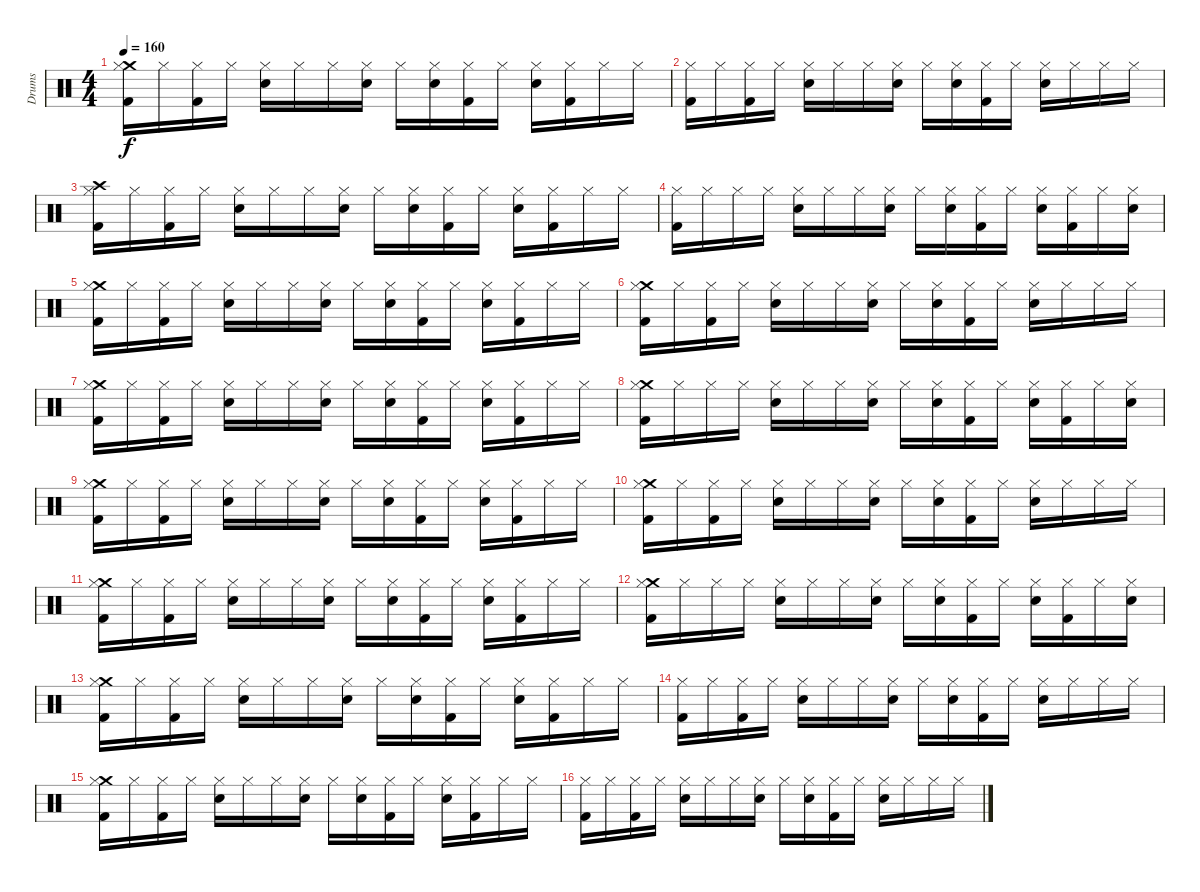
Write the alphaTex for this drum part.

\track ("Drums" "Drums") {instrument percussion}
\staff {score}
\articulation defaults
\ts (4 4)
\tempo 160
\clef neutral
\ks c
("Crash medium (hit)" "Kick (hit) 2" "Hi-Hat (closed)").16{dy f} "Hi-Hat (closed)".16 ("Kick (hit) 2" "Hi-Hat (closed)").16 "Hi-Hat (closed)".16 ("Hi-Hat (closed)" "Electric Snare (hit)").16 "Hi-Hat (closed)".16 "Hi-Hat (closed)".16 ("Electric Snare (hit)" "Hi-Hat (closed)").16 "Hi-Hat (closed)".16 ("Electric Snare (hit)" "Hi-Hat (closed)").16 ("Kick (hit) 2" "Hi-Hat (closed)").16 "Hi-Hat (closed)".16 ("Electric Snare (hit)" "Hi-Hat (closed)").16 ("Kick (hit) 2" "Hi-Hat (closed)").16 "Hi-Hat (closed)".16 "Hi-Hat (closed)".16 |
("Kick (hit) 2" "Hi-Hat (closed)").16 "Hi-Hat (closed)".16 ("Kick (hit) 2" "Hi-Hat (closed)").16 "Hi-Hat (closed)".16 ("Hi-Hat (closed)" "Electric Snare (hit)").16 "Hi-Hat (closed)".16 "Hi-Hat (closed)".16 ("Electric Snare (hit)" "Hi-Hat (closed)").16 "Hi-Hat (closed)".16 ("Electric Snare (hit)" "Hi-Hat (closed)").16 ("Kick (hit) 2" "Hi-Hat (closed)").16 "Hi-Hat (closed)".16 ("Electric Snare (hit)" "Hi-Hat (closed)").16 "Hi-Hat (closed)".16 "Hi-Hat (closed)".16 "Hi-Hat (closed)".16 |
("Crash high (hit)" "Kick (hit) 2" "Hi-Hat (closed)").16 "Hi-Hat (closed)".16 ("Kick (hit) 2" "Hi-Hat (closed)").16 "Hi-Hat (closed)".16 ("Hi-Hat (closed)" "Electric Snare (hit)").16 "Hi-Hat (closed)".16 "Hi-Hat (closed)".16 ("Electric Snare (hit)" "Hi-Hat (closed)").16 "Hi-Hat (closed)".16 ("Electric Snare (hit)" "Hi-Hat (closed)").16 ("Kick (hit) 2" "Hi-Hat (closed)").16 "Hi-Hat (closed)".16 ("Electric Snare (hit)" "Hi-Hat (closed)").16 ("Kick (hit) 2" "Hi-Hat (closed)").16 "Hi-Hat (closed)".16 "Hi-Hat (closed)".16 |
("Kick (hit) 2" "Hi-Hat (closed)").16 "Hi-Hat (closed)".16 "Hi-Hat (closed)".16 "Hi-Hat (closed)".16 ("Hi-Hat (closed)" "Electric Snare (hit)").16 "Hi-Hat (closed)".16 "Hi-Hat (closed)".16 ("Electric Snare (hit)" "Hi-Hat (closed)").16 "Hi-Hat (closed)".16 ("Electric Snare (hit)" "Hi-Hat (closed)").16 ("Kick (hit) 2" "Hi-Hat (closed)").16 "Hi-Hat (closed)".16 ("Electric Snare (hit)" "Hi-Hat (closed)").16 ("Kick (hit) 2" "Hi-Hat (closed)").16 "Hi-Hat (closed)".16 ("Electric Snare (hit)" "Hi-Hat (closed)").16 |
("Crash medium (hit)" "Kick (hit) 2" "Hi-Hat (closed)").16 "Hi-Hat (closed)".16 ("Kick (hit) 2" "Hi-Hat (closed)").16 "Hi-Hat (closed)".16 ("Hi-Hat (closed)" "Electric Snare (hit)").16 "Hi-Hat (closed)".16 "Hi-Hat (closed)".16 ("Electric Snare (hit)" "Hi-Hat (closed)").16 "Hi-Hat (closed)".16 ("Electric Snare (hit)" "Hi-Hat (closed)").16 ("Kick (hit) 2" "Hi-Hat (closed)").16 "Hi-Hat (closed)".16 ("Electric Snare (hit)" "Hi-Hat (closed)").16 ("Kick (hit) 2" "Hi-Hat (closed)").16 "Hi-Hat (closed)".16 "Hi-Hat (closed)".16 |
("Crash medium (hit)" "Kick (hit) 2" "Hi-Hat (closed)").16 "Hi-Hat (closed)".16 ("Kick (hit) 2" "Hi-Hat (closed)").16 "Hi-Hat (closed)".16 ("Hi-Hat (closed)" "Electric Snare (hit)").16 "Hi-Hat (closed)".16 "Hi-Hat (closed)".16 ("Electric Snare (hit)" "Hi-Hat (closed)").16 "Hi-Hat (closed)".16 ("Electric Snare (hit)" "Hi-Hat (closed)").16 ("Kick (hit) 2" "Hi-Hat (closed)").16 "Hi-Hat (closed)".16 ("Electric Snare (hit)" "Hi-Hat (closed)").16 "Hi-Hat (closed)".16 "Hi-Hat (closed)".16 "Hi-Hat (closed)".16 |
("Crash medium (hit)" "Kick (hit) 2" "Hi-Hat (closed)").16 "Hi-Hat (closed)".16 ("Kick (hit) 2" "Hi-Hat (closed)").16 "Hi-Hat (closed)".16 ("Hi-Hat (closed)" "Electric Snare (hit)").16 "Hi-Hat (closed)".16 "Hi-Hat (closed)".16 ("Electric Snare (hit)" "Hi-Hat (closed)").16 "Hi-Hat (closed)".16 ("Electric Snare (hit)" "Hi-Hat (closed)").16 ("Kick (hit) 2" "Hi-Hat (closed)").16 "Hi-Hat (closed)".16 ("Electric Snare (hit)" "Hi-Hat (closed)").16 ("Kick (hit) 2" "Hi-Hat (closed)").16 "Hi-Hat (closed)".16 "Hi-Hat (closed)".16 |
("Crash medium (hit)" "Kick (hit) 2" "Hi-Hat (closed)").16 "Hi-Hat (closed)".16 "Hi-Hat (closed)".16 "Hi-Hat (closed)".16 ("Hi-Hat (closed)" "Electric Snare (hit)").16 "Hi-Hat (closed)".16 "Hi-Hat (closed)".16 ("Electric Snare (hit)" "Hi-Hat (closed)").16 "Hi-Hat (closed)".16 ("Electric Snare (hit)" "Hi-Hat (closed)").16 ("Kick (hit) 2" "Hi-Hat (closed)").16 "Hi-Hat (closed)".16 ("Electric Snare (hit)" "Hi-Hat (closed)").16 ("Kick (hit) 2" "Hi-Hat (closed)").16 "Hi-Hat (closed)".16 ("Electric Snare (hit)" "Hi-Hat (closed)").16 |
("Crash medium (hit)" "Kick (hit) 2" "Hi-Hat (closed)").16 "Hi-Hat (closed)".16 ("Kick (hit) 2" "Hi-Hat (closed)").16 "Hi-Hat (closed)".16 ("Hi-Hat (closed)" "Electric Snare (hit)").16 "Hi-Hat (closed)".16 "Hi-Hat (closed)".16 ("Electric Snare (hit)" "Hi-Hat (closed)").16 "Hi-Hat (closed)".16 ("Electric Snare (hit)" "Hi-Hat (closed)").16 ("Kick (hit) 2" "Hi-Hat (closed)").16 "Hi-Hat (closed)".16 ("Electric Snare (hit)" "Hi-Hat (closed)").16 ("Kick (hit) 2" "Hi-Hat (closed)").16 "Hi-Hat (closed)".16 "Hi-Hat (closed)".16 |
("Crash medium (hit)" "Kick (hit) 2" "Hi-Hat (closed)").16 "Hi-Hat (closed)".16 ("Kick (hit) 2" "Hi-Hat (closed)").16 "Hi-Hat (closed)".16 ("Hi-Hat (closed)" "Electric Snare (hit)").16 "Hi-Hat (closed)".16 "Hi-Hat (closed)".16 ("Electric Snare (hit)" "Hi-Hat (closed)").16 "Hi-Hat (closed)".16 ("Electric Snare (hit)" "Hi-Hat (closed)").16 ("Kick (hit) 2" "Hi-Hat (closed)").16 "Hi-Hat (closed)".16 ("Electric Snare (hit)" "Hi-Hat (closed)").16 "Hi-Hat (closed)".16 "Hi-Hat (closed)".16 "Hi-Hat (closed)".16 |
("Crash medium (hit)" "Kick (hit) 2" "Hi-Hat (closed)").16 "Hi-Hat (closed)".16 ("Kick (hit) 2" "Hi-Hat (closed)").16 "Hi-Hat (closed)".16 ("Hi-Hat (closed)" "Electric Snare (hit)").16 "Hi-Hat (closed)".16 "Hi-Hat (closed)".16 ("Electric Snare (hit)" "Hi-Hat (closed)").16 "Hi-Hat (closed)".16 ("Electric Snare (hit)" "Hi-Hat (closed)").16 ("Kick (hit) 2" "Hi-Hat (closed)").16 "Hi-Hat (closed)".16 ("Electric Snare (hit)" "Hi-Hat (closed)").16 ("Kick (hit) 2" "Hi-Hat (closed)").16 "Hi-Hat (closed)".16 "Hi-Hat (closed)".16 |
("Crash medium (hit)" "Kick (hit) 2" "Hi-Hat (closed)").16 "Hi-Hat (closed)".16 "Hi-Hat (closed)".16 "Hi-Hat (closed)".16 ("Hi-Hat (closed)" "Electric Snare (hit)").16 "Hi-Hat (closed)".16 "Hi-Hat (closed)".16 ("Electric Snare (hit)" "Hi-Hat (closed)").16 "Hi-Hat (closed)".16 ("Electric Snare (hit)" "Hi-Hat (closed)").16 ("Kick (hit) 2" "Hi-Hat (closed)").16 "Hi-Hat (closed)".16 ("Electric Snare (hit)" "Hi-Hat (closed)").16 ("Kick (hit) 2" "Hi-Hat (closed)").16 "Hi-Hat (closed)".16 ("Electric Snare (hit)" "Hi-Hat (closed)").16 |
("Crash medium (hit)" "Kick (hit) 2" "Hi-Hat (closed)").16 "Hi-Hat (closed)".16 ("Kick (hit) 2" "Hi-Hat (closed)").16 "Hi-Hat (closed)".16 ("Hi-Hat (closed)" "Electric Snare (hit)").16 "Hi-Hat (closed)".16 "Hi-Hat (closed)".16 ("Electric Snare (hit)" "Hi-Hat (closed)").16 "Hi-Hat (closed)".16 ("Electric Snare (hit)" "Hi-Hat (closed)").16 ("Kick (hit) 2" "Hi-Hat (closed)").16 "Hi-Hat (closed)".16 ("Electric Snare (hit)" "Hi-Hat (closed)").16 ("Kick (hit) 2" "Hi-Hat (closed)").16 "Hi-Hat (closed)".16 "Hi-Hat (closed)".16 |
("Kick (hit) 2" "Hi-Hat (closed)").16 "Hi-Hat (closed)".16 ("Kick (hit) 2" "Hi-Hat (closed)").16 "Hi-Hat (closed)".16 ("Hi-Hat (closed)" "Electric Snare (hit)").16 "Hi-Hat (closed)".16 "Hi-Hat (closed)".16 ("Electric Snare (hit)" "Hi-Hat (closed)").16 "Hi-Hat (closed)".16 ("Electric Snare (hit)" "Hi-Hat (closed)").16 ("Kick (hit) 2" "Hi-Hat (closed)").16 "Hi-Hat (closed)".16 ("Electric Snare (hit)" "Hi-Hat (closed)").16 "Hi-Hat (closed)".16 "Hi-Hat (closed)".16 "Hi-Hat (closed)".16 |
("Crash medium (hit)" "Kick (hit) 2" "Hi-Hat (closed)").16 "Hi-Hat (closed)".16 ("Kick (hit) 2" "Hi-Hat (closed)").16 "Hi-Hat (closed)".16 ("Hi-Hat (closed)" "Electric Snare (hit)").16 "Hi-Hat (closed)".16 "Hi-Hat (closed)".16 ("Electric Snare (hit)" "Hi-Hat (closed)").16 "Hi-Hat (closed)".16 ("Electric Snare (hit)" "Hi-Hat (closed)").16 ("Kick (hit) 2" "Hi-Hat (closed)").16 "Hi-Hat (closed)".16 ("Electric Snare (hit)" "Hi-Hat (closed)").16 ("Kick (hit) 2" "Hi-Hat (closed)").16 "Hi-Hat (closed)".16 "Hi-Hat (closed)".16 |
("Kick (hit) 2" "Hi-Hat (closed)").16 "Hi-Hat (closed)".16 ("Kick (hit) 2" "Hi-Hat (closed)").16 "Hi-Hat (closed)".16 ("Hi-Hat (closed)" "Electric Snare (hit)").16 "Hi-Hat (closed)".16 "Hi-Hat (closed)".16 ("Electric Snare (hit)" "Hi-Hat (closed)").16 "Hi-Hat (closed)".16 ("Electric Snare (hit)" "Hi-Hat (closed)").16 ("Kick (hit) 2" "Hi-Hat (closed)").16 "Hi-Hat (closed)".16 ("Electric Snare (hit)" "Hi-Hat (closed)").16 "Hi-Hat (closed)".16 "Hi-Hat (closed)".16 "Hi-Hat (closed)".16
